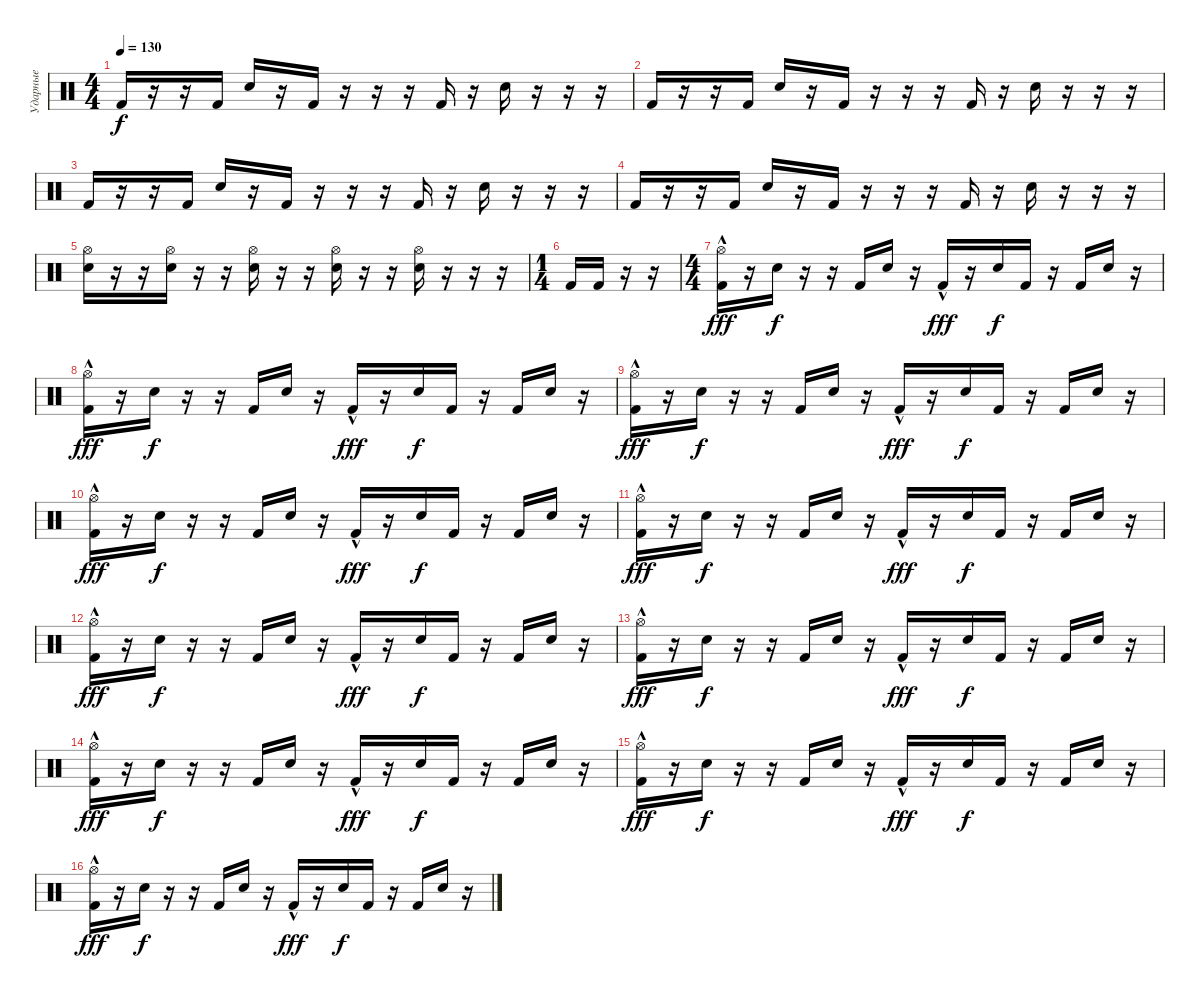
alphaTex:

\track ("Ударные" "Ударные") {instrument percussion}
\staff {score}
\articulation defaults
\ts (4 4)
\tempo 130
\clef neutral
\ks c "Kick (hit) 2".16{dy f}
r.16 r.16 "Kick (hit) 2".16 "Electric Snare (hit)".16 r.16 "Kick (hit) 2".16 r.16 r.16 r.16 "Kick (hit) 2".16 r.16 "Electric Snare (hit)".16 r.16 r.16 r.16 |
"Kick (hit) 2".16 r.16 r.16 "Kick (hit) 2".16 "Electric Snare (hit)".16 r.16 "Kick (hit) 2".16 r.16 r.16 r.16 "Kick (hit) 2".16 r.16 "Electric Snare (hit)".16 r.16 r.16 r.16 |
"Kick (hit) 2".16 r.16 r.16 "Kick (hit) 2".16 "Electric Snare (hit)".16 r.16 "Kick (hit) 2".16 r.16 r.16 r.16 "Kick (hit) 2".16 r.16 "Electric Snare (hit)".16 r.16 r.16 r.16 |
"Kick (hit) 2".16 r.16 r.16 "Kick (hit) 2".16 "Electric Snare (hit)".16 r.16 "Kick (hit) 2".16 r.16 r.16 r.16 "Kick (hit) 2".16 r.16 "Electric Snare (hit)".16 r.16 r.16 r.16 |
("Electric Snare (hit)" "Hi-Hat (open)").16 r.16 r.16 ("Electric Snare (hit)" "Hi-Hat (open)").16 r.16 r.16 ("Electric Snare (hit)" "Hi-Hat (open)").16 r.16 r.16 ("Electric Snare (hit)" "Hi-Hat (open)").16 r.16 r.16 ("Electric Snare (hit)" "Hi-Hat (open)").16 r.16 r.16 r.16 |
\ts (1 4)
"Kick (hit) 2".16 "Kick (hit) 2".16 r.16 r.16 |
\ts (4 4)
("Hi-Hat (open)" "Kick (hit) 2"{hac}).16{dy fff} r.16 "Electric Snare (hit)".16{dy f} r.16 r.16 "Kick (hit) 2".16 "Electric Snare (hit)".16 r.16 "Kick (hit) 2"{hac}.16{dy fff} r.16 "Electric Snare (hit)".16{dy f} "Kick (hit) 2".16 r.16 "Kick (hit) 2".16 "Electric Snare (hit)".16 r.16 |
("Hi-Hat (open)" "Kick (hit) 2"{hac}).16{dy fff} r.16 "Electric Snare (hit)".16{dy f} r.16 r.16 "Kick (hit) 2".16 "Electric Snare (hit)".16 r.16 "Kick (hit) 2"{hac}.16{dy fff} r.16 "Electric Snare (hit)".16{dy f} "Kick (hit) 2".16 r.16 "Kick (hit) 2".16 "Electric Snare (hit)".16 r.16 |
("Hi-Hat (open)" "Kick (hit) 2"{hac}).16{dy fff} r.16 "Electric Snare (hit)".16{dy f} r.16 r.16 "Kick (hit) 2".16 "Electric Snare (hit)".16 r.16 "Kick (hit) 2"{hac}.16{dy fff} r.16 "Electric Snare (hit)".16{dy f} "Kick (hit) 2".16 r.16 "Kick (hit) 2".16 "Electric Snare (hit)".16 r.16 |
("Hi-Hat (open)" "Kick (hit) 2"{hac}).16{dy fff} r.16 "Electric Snare (hit)".16{dy f} r.16 r.16 "Kick (hit) 2".16 "Electric Snare (hit)".16 r.16 "Kick (hit) 2"{hac}.16{dy fff} r.16 "Electric Snare (hit)".16{dy f} "Kick (hit) 2".16 r.16 "Kick (hit) 2".16 "Electric Snare (hit)".16 r.16 |
("Hi-Hat (open)" "Kick (hit) 2"{hac}).16{dy fff} r.16 "Electric Snare (hit)".16{dy f} r.16 r.16 "Kick (hit) 2".16 "Electric Snare (hit)".16 r.16 "Kick (hit) 2"{hac}.16{dy fff} r.16 "Electric Snare (hit)".16{dy f} "Kick (hit) 2".16 r.16 "Kick (hit) 2".16 "Electric Snare (hit)".16 r.16 |
("Hi-Hat (open)" "Kick (hit) 2"{hac}).16{dy fff} r.16 "Electric Snare (hit)".16{dy f} r.16 r.16 "Kick (hit) 2".16 "Electric Snare (hit)".16 r.16 "Kick (hit) 2"{hac}.16{dy fff} r.16 "Electric Snare (hit)".16{dy f} "Kick (hit) 2".16 r.16 "Kick (hit) 2".16 "Electric Snare (hit)".16 r.16 |
("Hi-Hat (open)" "Kick (hit) 2"{hac}).16{dy fff} r.16 "Electric Snare (hit)".16{dy f} r.16 r.16 "Kick (hit) 2".16 "Electric Snare (hit)".16 r.16 "Kick (hit) 2"{hac}.16{dy fff} r.16 "Electric Snare (hit)".16{dy f} "Kick (hit) 2".16 r.16 "Kick (hit) 2".16 "Electric Snare (hit)".16 r.16 |
("Hi-Hat (open)" "Kick (hit) 2"{hac}).16{dy fff} r.16 "Electric Snare (hit)".16{dy f} r.16 r.16 "Kick (hit) 2".16 "Electric Snare (hit)".16 r.16 "Kick (hit) 2"{hac}.16{dy fff} r.16 "Electric Snare (hit)".16{dy f} "Kick (hit) 2".16 r.16 "Kick (hit) 2".16 "Electric Snare (hit)".16 r.16 |
("Hi-Hat (open)" "Kick (hit) 2"{hac}).16{dy fff} r.16 "Electric Snare (hit)".16{dy f} r.16 r.16 "Kick (hit) 2".16 "Electric Snare (hit)".16 r.16 "Kick (hit) 2"{hac}.16{dy fff} r.16 "Electric Snare (hit)".16{dy f} "Kick (hit) 2".16 r.16 "Kick (hit) 2".16 "Electric Snare (hit)".16 r.16 |
("Hi-Hat (open)" "Kick (hit) 2"{hac}).16{dy fff} r.16 "Electric Snare (hit)".16{dy f} r.16 r.16 "Kick (hit) 2".16 "Electric Snare (hit)".16 r.16 "Kick (hit) 2"{hac}.16{dy fff} r.16 "Electric Snare (hit)".16{dy f} "Kick (hit) 2".16 r.16 "Kick (hit) 2".16 "Electric Snare (hit)".16 r.16
